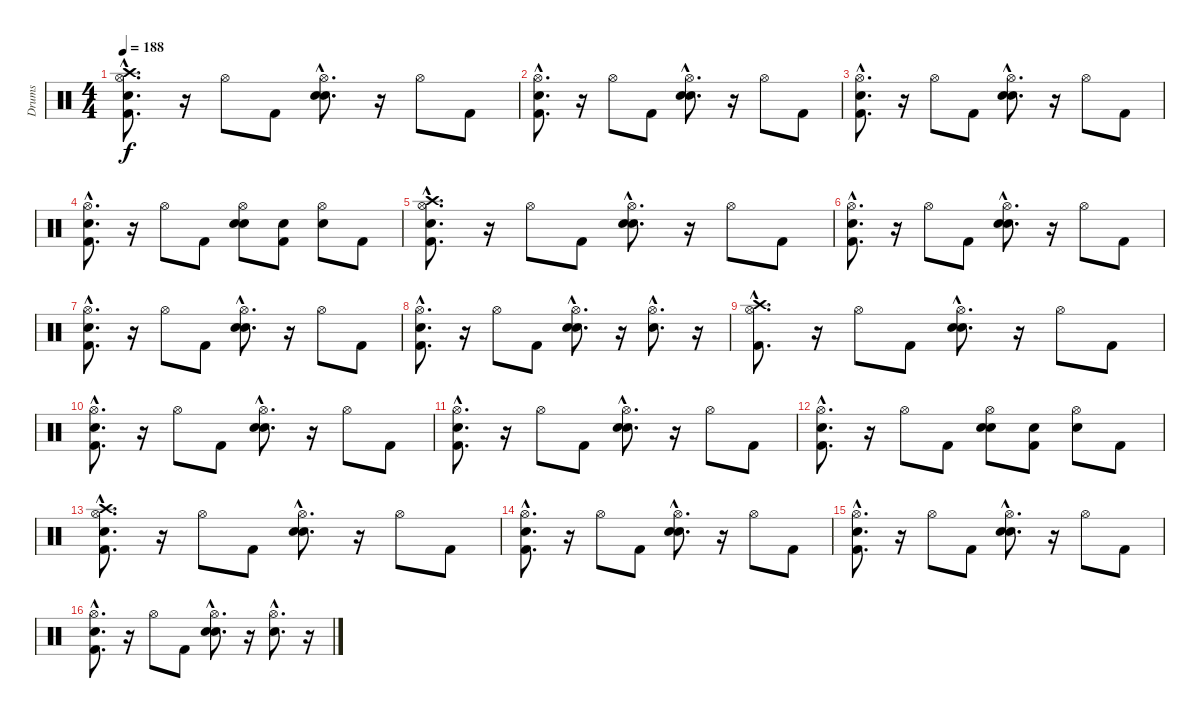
\track ("Drums" "Drums") {instrument percussion}
\staff {score}
\articulation defaults
\ts (4 4)
\tempo 188
\clef neutral
\ks c
("Snare (hit)"{hac} "Kick (hit) 2"{hac} "Hi-Hat (open)"{hac} "Crash high (hit)"{hac}).8{d dy f} r.16 "Hi-Hat (open)".8 "Kick (hit) 2".8 ("Snare (hit)"{hac} "Snare (hit) 2"{hac} "Hi-Hat (open)"{hac}).8{d} r.16 "Hi-Hat (open)".8 "Kick (hit) 2".8 |
("Snare (hit)"{hac} "Kick (hit) 2"{hac} "Hi-Hat (open)"{hac}).8{d} r.16 "Hi-Hat (open)".8 "Kick (hit) 2".8 ("Snare (hit)"{hac} "Snare (hit) 2"{hac} "Hi-Hat (open)"{hac}).8{d} r.16 "Hi-Hat (open)".8 "Kick (hit) 2".8 |
("Snare (hit)"{hac} "Kick (hit) 2"{hac} "Hi-Hat (open)"{hac}).8{d} r.16 "Hi-Hat (open)".8 "Kick (hit) 2".8 ("Snare (hit)"{hac} "Snare (hit) 2"{hac} "Hi-Hat (open)"{hac}).8{d} r.16 "Hi-Hat (open)".8 "Kick (hit) 2".8 |
("Snare (hit)"{hac} "Kick (hit) 2"{hac} "Hi-Hat (open)"{hac}).8{d} r.16 "Hi-Hat (open)".8 "Kick (hit) 2".8 ("Snare (hit)" "Snare (hit) 2" "Hi-Hat (open)").8 ("Snare (hit)" "Kick (hit) 2").8 ("Snare (hit)" "Hi-Hat (open)").8 "Kick (hit) 2".8 |
("Snare (hit)"{hac} "Kick (hit) 2"{hac} "Hi-Hat (open)"{hac} "Crash high (hit)"{hac}).8{d} r.16 "Hi-Hat (open)".8 "Kick (hit) 2".8 ("Snare (hit)"{hac} "Snare (hit) 2"{hac} "Hi-Hat (open)"{hac}).8{d} r.16 "Hi-Hat (open)".8 "Kick (hit) 2".8 |
("Snare (hit)"{hac} "Kick (hit) 2"{hac} "Hi-Hat (open)"{hac}).8{d} r.16 "Hi-Hat (open)".8 "Kick (hit) 2".8 ("Snare (hit)"{hac} "Snare (hit) 2"{hac} "Hi-Hat (open)"{hac}).8{d} r.16 "Hi-Hat (open)".8 "Kick (hit) 2".8 |
("Snare (hit)"{hac} "Kick (hit) 2"{hac} "Hi-Hat (open)"{hac}).8{d} r.16 "Hi-Hat (open)".8 "Kick (hit) 2".8 ("Snare (hit)"{hac} "Snare (hit) 2"{hac} "Hi-Hat (open)"{hac}).8{d} r.16 "Hi-Hat (open)".8 "Kick (hit) 2".8 |
("Snare (hit)"{hac} "Kick (hit) 2"{hac} "Hi-Hat (open)"{hac}).8{d} r.16 "Hi-Hat (open)".8 "Kick (hit) 2".8 ("Snare (hit)"{hac} "Snare (hit) 2"{hac} "Hi-Hat (open)"{hac}).8{d} r.16 ("Snare (hit) 2"{hac} "Hi-Hat (open)"{hac}).8{d} r.16 |
("Kick (hit) 2"{hac} "Hi-Hat (open)"{hac} "Crash high (hit)"{hac}).8{d} r.16 "Hi-Hat (open)".8 "Kick (hit) 2".8 ("Snare (hit)"{hac} "Snare (hit) 2"{hac} "Hi-Hat (open)"{hac}).8{d} r.16 "Hi-Hat (open)".8 "Kick (hit) 2".8 |
("Snare (hit)"{hac} "Kick (hit) 2"{hac} "Hi-Hat (open)"{hac}).8{d} r.16 "Hi-Hat (open)".8 "Kick (hit) 2".8 ("Snare (hit)"{hac} "Snare (hit) 2"{hac} "Hi-Hat (open)"{hac}).8{d} r.16 "Hi-Hat (open)".8 "Kick (hit) 2".8 |
("Snare (hit)"{hac} "Kick (hit) 2"{hac} "Hi-Hat (open)"{hac}).8{d} r.16 "Hi-Hat (open)".8 "Kick (hit) 2".8 ("Snare (hit)"{hac} "Snare (hit) 2"{hac} "Hi-Hat (open)"{hac}).8{d} r.16 "Hi-Hat (open)".8 "Kick (hit) 2".8 |
("Snare (hit)"{hac} "Kick (hit) 2"{hac} "Hi-Hat (open)"{hac}).8{d} r.16 "Hi-Hat (open)".8 "Kick (hit) 2".8 ("Snare (hit)" "Snare (hit) 2" "Hi-Hat (open)").8 ("Snare (hit)" "Kick (hit) 2").8 ("Snare (hit)" "Hi-Hat (open)").8 "Kick (hit) 2".8 |
("Snare (hit)"{hac} "Kick (hit) 2"{hac} "Hi-Hat (open)"{hac} "Crash high (hit)"{hac}).8{d} r.16 "Hi-Hat (open)".8 "Kick (hit) 2".8 ("Snare (hit)"{hac} "Snare (hit) 2"{hac} "Hi-Hat (open)"{hac}).8{d} r.16 "Hi-Hat (open)".8 "Kick (hit) 2".8 |
("Snare (hit)"{hac} "Kick (hit) 2"{hac} "Hi-Hat (open)"{hac}).8{d} r.16 "Hi-Hat (open)".8 "Kick (hit) 2".8 ("Snare (hit)"{hac} "Snare (hit) 2"{hac} "Hi-Hat (open)"{hac}).8{d} r.16 "Hi-Hat (open)".8 "Kick (hit) 2".8 |
("Snare (hit)"{hac} "Kick (hit) 2"{hac} "Hi-Hat (open)"{hac}).8{d} r.16 "Hi-Hat (open)".8 "Kick (hit) 2".8 ("Snare (hit)"{hac} "Snare (hit) 2"{hac} "Hi-Hat (open)"{hac}).8{d} r.16 "Hi-Hat (open)".8 "Kick (hit) 2".8 |
("Snare (hit)"{hac} "Kick (hit) 2"{hac} "Hi-Hat (open)"{hac}).8{d} r.16 "Hi-Hat (open)".8 "Kick (hit) 2".8 ("Snare (hit)"{hac} "Snare (hit) 2"{hac} "Hi-Hat (open)"{hac}).8{d} r.16 ("Snare (hit) 2"{hac} "Hi-Hat (open)"{hac}).8{d} r.16
